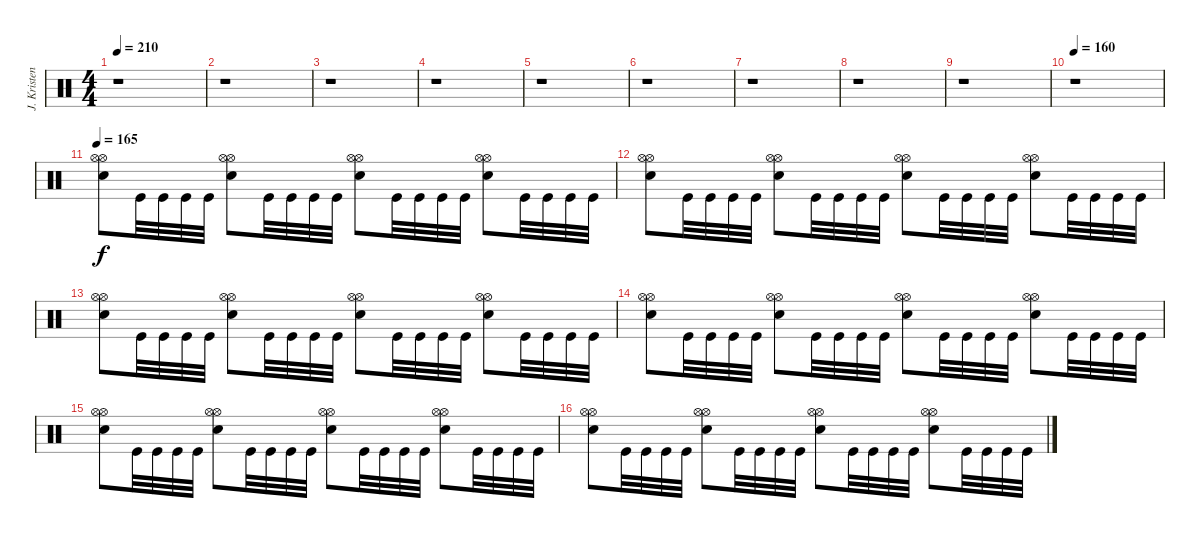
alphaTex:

\track ("J. Kristensson" "J. Kristen") {instrument percussion}
\staff {score}
\articulation defaults
\ts (4 4)
\tempo 210
\clef neutral
\ks c
r.1{dy f} |
r.1 |
r.1 |
r.1 |
r.1 |
r.1 |
r.1 |
r.1 |
r.1 |
\tempo 160
r.1 |
\tempo 170
\tempo 165
("Hi-Hat (open)" "Hi-Hat (open)" "Snare (hit) 2").8 "Kick (hit)".32 "Kick (hit)".32 "Kick (hit)".32 "Kick (hit)".32 ("Hi-Hat (open)" "Hi-Hat (open)" "Snare (hit) 2").8 "Kick (hit)".32 "Kick (hit)".32 "Kick (hit)".32 "Kick (hit)".32 ("Hi-Hat (open)" "Hi-Hat (open)" "Snare (hit) 2").8 "Kick (hit)".32 "Kick (hit)".32 "Kick (hit)".32 "Kick (hit)".32 ("Hi-Hat (open)" "Hi-Hat (open)" "Snare (hit) 2").8 "Kick (hit)".32 "Kick (hit)".32 "Kick (hit)".32 "Kick (hit)".32 |
("Hi-Hat (open)" "Hi-Hat (open)" "Snare (hit) 2").8 "Kick (hit)".32 "Kick (hit)".32 "Kick (hit)".32 "Kick (hit)".32 ("Hi-Hat (open)" "Hi-Hat (open)" "Snare (hit) 2").8 "Kick (hit)".32 "Kick (hit)".32 "Kick (hit)".32 "Kick (hit)".32 ("Hi-Hat (open)" "Hi-Hat (open)" "Snare (hit) 2").8 "Kick (hit)".32 "Kick (hit)".32 "Kick (hit)".32 "Kick (hit)".32 ("Hi-Hat (open)" "Hi-Hat (open)" "Snare (hit) 2").8 "Kick (hit)".32 "Kick (hit)".32 "Kick (hit)".32 "Kick (hit)".32 |
("Hi-Hat (open)" "Hi-Hat (open)" "Snare (hit) 2").8 "Kick (hit)".32 "Kick (hit)".32 "Kick (hit)".32 "Kick (hit)".32 ("Hi-Hat (open)" "Hi-Hat (open)" "Snare (hit) 2").8 "Kick (hit)".32 "Kick (hit)".32 "Kick (hit)".32 "Kick (hit)".32 ("Hi-Hat (open)" "Hi-Hat (open)" "Snare (hit) 2").8 "Kick (hit)".32 "Kick (hit)".32 "Kick (hit)".32 "Kick (hit)".32 ("Hi-Hat (open)" "Hi-Hat (open)" "Snare (hit) 2").8 "Kick (hit)".32 "Kick (hit)".32 "Kick (hit)".32 "Kick (hit)".32 |
("Hi-Hat (open)" "Hi-Hat (open)" "Snare (hit) 2").8 "Kick (hit)".32 "Kick (hit)".32 "Kick (hit)".32 "Kick (hit)".32 ("Hi-Hat (open)" "Hi-Hat (open)" "Snare (hit) 2").8 "Kick (hit)".32 "Kick (hit)".32 "Kick (hit)".32 "Kick (hit)".32 ("Hi-Hat (open)" "Hi-Hat (open)" "Snare (hit) 2").8 "Kick (hit)".32 "Kick (hit)".32 "Kick (hit)".32 "Kick (hit)".32 ("Hi-Hat (open)" "Hi-Hat (open)" "Snare (hit) 2").8 "Kick (hit)".32 "Kick (hit)".32 "Kick (hit)".32 "Kick (hit)".32 |
("Hi-Hat (open)" "Hi-Hat (open)" "Snare (hit) 2").8 "Kick (hit)".32 "Kick (hit)".32 "Kick (hit)".32 "Kick (hit)".32 ("Hi-Hat (open)" "Hi-Hat (open)" "Snare (hit) 2").8 "Kick (hit)".32 "Kick (hit)".32 "Kick (hit)".32 "Kick (hit)".32 ("Hi-Hat (open)" "Hi-Hat (open)" "Snare (hit) 2").8 "Kick (hit)".32 "Kick (hit)".32 "Kick (hit)".32 "Kick (hit)".32 ("Hi-Hat (open)" "Hi-Hat (open)" "Snare (hit) 2").8 "Kick (hit)".32 "Kick (hit)".32 "Kick (hit)".32 "Kick (hit)".32 |
("Hi-Hat (open)" "Hi-Hat (open)" "Snare (hit) 2").8 "Kick (hit)".32 "Kick (hit)".32 "Kick (hit)".32 "Kick (hit)".32 ("Hi-Hat (open)" "Hi-Hat (open)" "Snare (hit) 2").8 "Kick (hit)".32 "Kick (hit)".32 "Kick (hit)".32 "Kick (hit)".32 ("Hi-Hat (open)" "Hi-Hat (open)" "Snare (hit) 2").8 "Kick (hit)".32 "Kick (hit)".32 "Kick (hit)".32 "Kick (hit)".32 ("Hi-Hat (open)" "Hi-Hat (open)" "Snare (hit) 2").8 "Kick (hit)".32 "Kick (hit)".32 "Kick (hit)".32 "Kick (hit)".32
